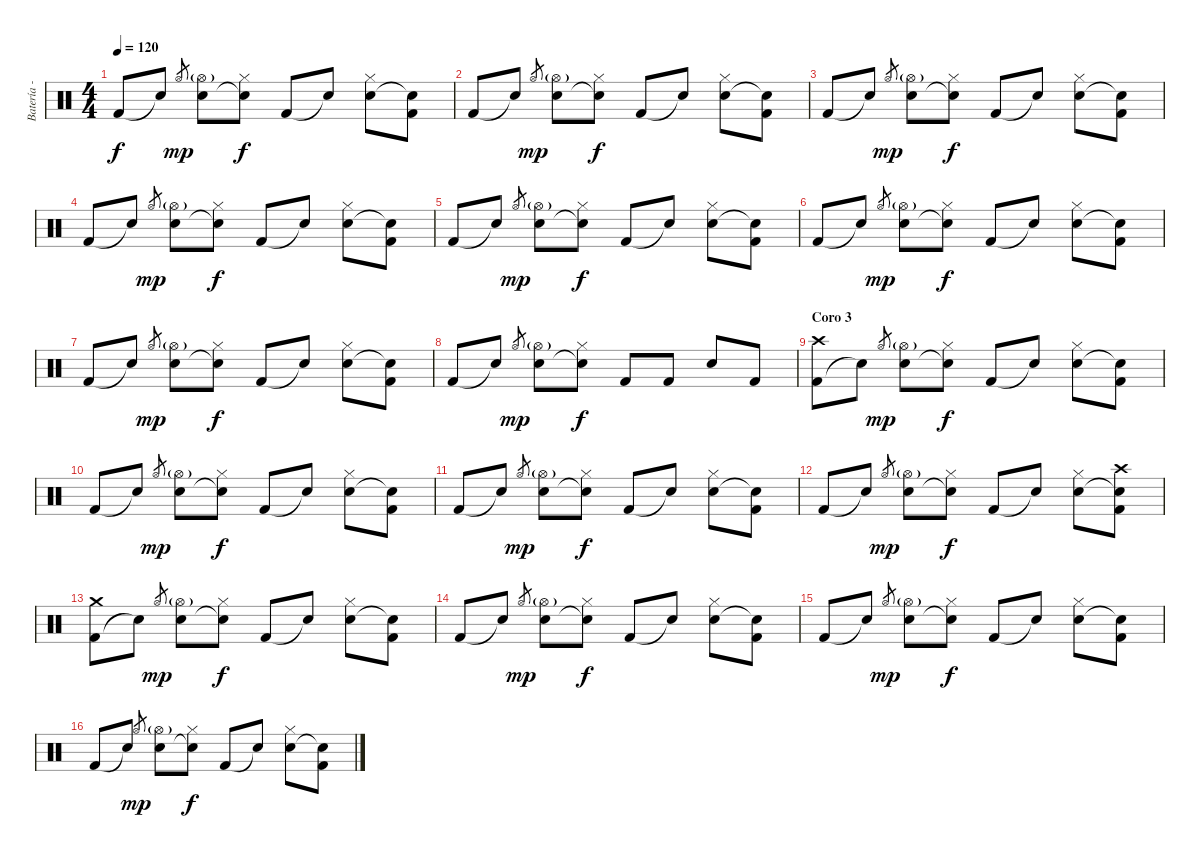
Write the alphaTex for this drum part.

\track ("Batería - Txus" "Batería - ") {instrument percussion}
\staff {score}
\articulation defaults
\ts (4 4)
\tempo 120
\clef neutral
\ks c "Kick (hit) 2".8{dy f} "Snare (hit)"{t}.8 "Hi-Hat (open)".8{gr dy mp}
("Snare (hit) 2" "Hi-Hat (open)"{g}).8 ("Snare (hit)"{t} "Hi-Hat (closed)").8{dy f} "Kick (hit) 2".8 "Snare (hit)"{t}.8 ("Snare (hit) 2" "Hi-Hat (closed)").8 ("Snare (hit)"{t} "Kick (hit) 2").8 |
"Kick (hit) 2".8 "Snare (hit)"{t}.8 "Hi-Hat (open)".8{gr dy mp} ("Snare (hit) 2" "Hi-Hat (open)"{g}).8 ("Snare (hit)"{t} "Hi-Hat (closed)").8{dy f} "Kick (hit) 2".8 "Snare (hit)"{t}.8 ("Snare (hit) 2" "Hi-Hat (closed)").8 ("Snare (hit)"{t} "Kick (hit) 2").8 |
"Kick (hit) 2".8 "Snare (hit)"{t}.8 "Hi-Hat (open)".8{gr dy mp} ("Snare (hit) 2" "Hi-Hat (open)"{g}).8 ("Snare (hit)"{t} "Hi-Hat (closed)").8{dy f} "Kick (hit) 2".8 "Snare (hit)"{t}.8 ("Snare (hit) 2" "Hi-Hat (closed)").8 ("Snare (hit)"{t} "Kick (hit) 2").8 |
"Kick (hit) 2".8 "Snare (hit)"{t}.8 "Hi-Hat (open)".8{gr dy mp} ("Snare (hit) 2" "Hi-Hat (open)"{g}).8 ("Snare (hit)"{t} "Hi-Hat (closed)").8{dy f} "Kick (hit) 2".8 "Snare (hit)"{t}.8 ("Snare (hit) 2" "Hi-Hat (closed)").8 ("Snare (hit)"{t} "Kick (hit) 2").8 |
"Kick (hit) 2".8 "Snare (hit)"{t}.8 "Hi-Hat (open)".8{gr dy mp} ("Snare (hit) 2" "Hi-Hat (open)"{g}).8 ("Snare (hit)"{t} "Hi-Hat (closed)").8{dy f} "Kick (hit) 2".8 "Snare (hit)"{t}.8 ("Snare (hit) 2" "Hi-Hat (closed)").8 ("Snare (hit)"{t} "Kick (hit) 2").8 |
"Kick (hit) 2".8 "Snare (hit)"{t}.8 "Hi-Hat (open)".8{gr dy mp} ("Snare (hit) 2" "Hi-Hat (open)"{g}).8 ("Snare (hit)"{t} "Hi-Hat (closed)").8{dy f} "Kick (hit) 2".8 "Snare (hit)"{t}.8 ("Snare (hit) 2" "Hi-Hat (closed)").8 ("Snare (hit)"{t} "Kick (hit) 2").8 |
"Kick (hit) 2".8 "Snare (hit)"{t}.8 "Hi-Hat (open)".8{gr dy mp} ("Snare (hit) 2" "Hi-Hat (open)"{g}).8 ("Snare (hit)"{t} "Hi-Hat (closed)").8{dy f} "Kick (hit) 2".8 "Snare (hit)"{t}.8 ("Snare (hit) 2" "Hi-Hat (closed)").8 ("Snare (hit)"{t} "Kick (hit) 2").8 |
"Kick (hit) 2".8 "Snare (hit)"{t}.8 "Hi-Hat (open)".8{gr dy mp} ("Snare (hit) 2" "Hi-Hat (open)"{g}).8 ("Snare (hit)"{t} "Hi-Hat (closed)").8{dy f} "Kick (hit) 2".8 "Kick (hit) 2".8 "Snare (hit) 2".8 "Kick (hit) 2".8 |
\section ("" "Coro 3")
("Kick (hit) 2" "Crash high (hit)").8 "Snare (hit)"{t}.8 "Hi-Hat (open)".8{gr dy mp} ("Snare (hit) 2" "Hi-Hat (open)"{g}).8 ("Snare (hit)"{t} "Hi-Hat (closed)").8{dy f} "Kick (hit) 2".8 "Snare (hit)"{t}.8 ("Snare (hit) 2" "Hi-Hat (closed)").8 ("Snare (hit)"{t} "Kick (hit) 2").8 |
"Kick (hit) 2".8 "Snare (hit)"{t}.8 "Hi-Hat (open)".8{gr dy mp} ("Snare (hit) 2" "Hi-Hat (open)"{g}).8 ("Snare (hit)"{t} "Hi-Hat (closed)").8{dy f} "Kick (hit) 2".8 "Snare (hit)"{t}.8 ("Snare (hit) 2" "Hi-Hat (closed)").8 ("Snare (hit)"{t} "Kick (hit) 2").8 |
"Kick (hit) 2".8 "Snare (hit)"{t}.8 "Hi-Hat (open)".8{gr dy mp} ("Snare (hit) 2" "Hi-Hat (open)"{g}).8 ("Snare (hit)"{t} "Hi-Hat (closed)").8{dy f} "Kick (hit) 2".8 "Snare (hit)"{t}.8 ("Snare (hit) 2" "Hi-Hat (closed)").8 ("Snare (hit)"{t} "Kick (hit) 2").8 |
"Kick (hit) 2".8 "Snare (hit)"{t}.8 "Hi-Hat (open)".8{gr dy mp} ("Snare (hit) 2" "Hi-Hat (open)"{g}).8 ("Snare (hit)"{t} "Hi-Hat (closed)").8{dy f} "Kick (hit) 2".8 "Snare (hit)"{t}.8 ("Snare (hit) 2" "Hi-Hat (closed)").8 ("Snare (hit)"{t} "Kick (hit) 2" "Crash high (hit)").8 |
("Kick (hit) 2" "Crash medium (hit)").8 "Snare (hit)"{t}.8 "Hi-Hat (open)".8{gr dy mp} ("Snare (hit) 2" "Hi-Hat (open)"{g}).8 ("Snare (hit)"{t} "Hi-Hat (closed)").8{dy f} "Kick (hit) 2".8 "Snare (hit)"{t}.8 ("Snare (hit) 2" "Hi-Hat (closed)").8 ("Snare (hit)"{t} "Kick (hit) 2").8 |
"Kick (hit) 2".8 "Snare (hit)"{t}.8 "Hi-Hat (open)".8{gr dy mp} ("Snare (hit) 2" "Hi-Hat (open)"{g}).8 ("Snare (hit)"{t} "Hi-Hat (closed)").8{dy f} "Kick (hit) 2".8 "Snare (hit)"{t}.8 ("Snare (hit) 2" "Hi-Hat (closed)").8 ("Snare (hit)"{t} "Kick (hit) 2").8 |
"Kick (hit) 2".8 "Snare (hit)"{t}.8 "Hi-Hat (open)".8{gr dy mp} ("Snare (hit) 2" "Hi-Hat (open)"{g}).8 ("Snare (hit)"{t} "Hi-Hat (closed)").8{dy f} "Kick (hit) 2".8 "Snare (hit)"{t}.8 ("Snare (hit) 2" "Hi-Hat (closed)").8 ("Snare (hit)"{t} "Kick (hit) 2").8 |
"Kick (hit) 2".8 "Snare (hit)"{t}.8 "Hi-Hat (open)".8{gr dy mp} ("Snare (hit) 2" "Hi-Hat (open)"{g}).8 ("Snare (hit)"{t} "Hi-Hat (closed)").8{dy f} "Kick (hit) 2".8 "Snare (hit)"{t}.8 ("Snare (hit) 2" "Hi-Hat (closed)").8 ("Snare (hit)"{t} "Kick (hit) 2").8
